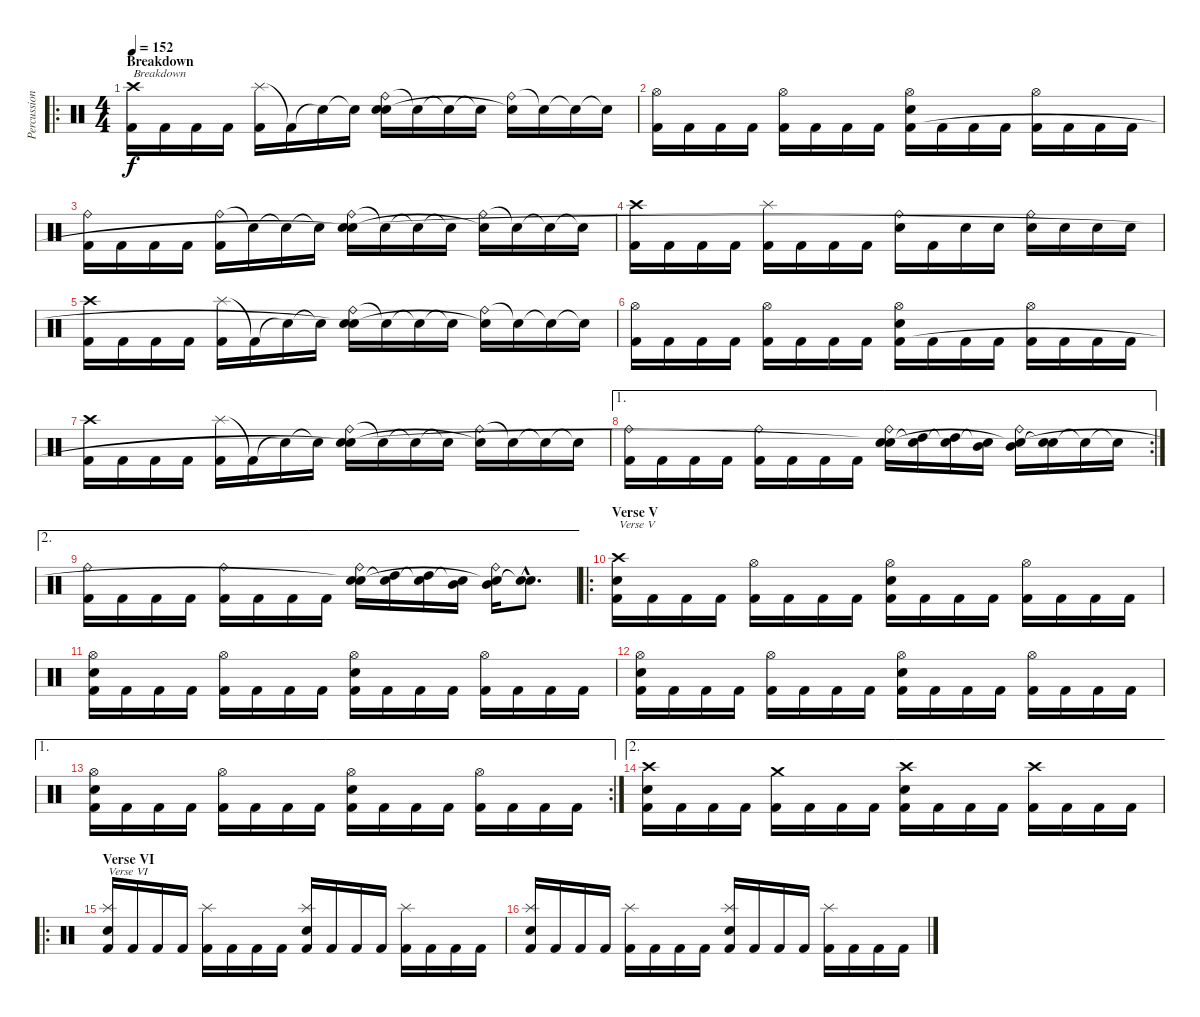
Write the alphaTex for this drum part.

\track ("Percussion" "Percussion") {instrument percussion}
\staff {score}
\articulation defaults
\ro
\ts (4 4)
\section ("" "Breakdown")
\tempo 152
\clef neutral
\ks c
("Crash high (hit)" "Kick (hit) 2").16{txt "Breakdown" dy f} "Kick (hit) 2".16 "Kick (hit) 2".16 "Kick (hit) 2".16 ("Splash (hit)" "Kick (hit) 2").16 "Kick (hit) 2"{t}.16 "Snare (hit)"{t}.16 "Snare (hit)"{t}.16 ("Ride (bell)" "Electric Snare (hit)" "Snare (hit)"{t}).16 "Snare (hit)"{t}.16 "Snare (hit)"{t}.16 "Snare (hit)"{t}.16 ("Ride (bell)" "Snare (hit)"{t}).16 "Snare (hit)"{t}.16 "Snare (hit)"{t}.16 "Snare (hit)"{t}.16 |
("Hi-Hat (open)" "Kick (hit) 2").16 "Kick (hit) 2".16 "Kick (hit) 2".16 "Kick (hit) 2".16 ("Hi-Hat (open)" "Kick (hit) 2").16 "Kick (hit) 2".16 "Kick (hit) 2".16 "Kick (hit) 2".16 ("Hi-Hat (open)" "Electric Snare (hit)" "Kick (hit) 2").16 "Kick (hit) 2".16 "Kick (hit) 2".16 "Kick (hit) 2".16 ("Hi-Hat (open)" "Kick (hit) 2").16 "Kick (hit) 2".16 "Kick (hit) 2".16 "Kick (hit) 2".16 |
("Ride (bell)" "Kick (hit) 2").16 "Kick (hit) 2".16 "Kick (hit) 2".16 "Kick (hit) 2".16 ("Ride (bell)" "Kick (hit) 2").16 "Snare (hit)"{t}.16 "Snare (hit)"{t}.16 "Snare (hit)"{t}.16 ("Ride (bell)" "Electric Snare (hit)" "Snare (hit)"{t}).16 "Snare (hit)"{t}.16 "Snare (hit)"{t}.16 "Snare (hit)"{t}.16 ("Ride (bell)" "Snare (hit)"{t}).16 "Snare (hit)"{t}.16 "Snare (hit)"{t}.16 "Snare (hit)"{t}.16 |
("Crash high (hit)" "Kick (hit) 2").16 "Kick (hit) 2".16 "Kick (hit) 2".16 "Kick (hit) 2".16 ("Splash (hit)" "Kick (hit) 2").16 "Kick (hit) 2".16 "Kick (hit) 2".16 "Kick (hit) 2".16 ("Ride (bell)" "Electric Snare (hit)").16 "Kick (hit) 2".16 "Electric Snare (hit)".16 "Electric Snare (hit)".16 ("Ride (bell)" "Electric Snare (hit)").16 "Electric Snare (hit)".16 "Electric Snare (hit)".16 "Electric Snare (hit)".16 |
("Crash high (hit)" "Kick (hit) 2").16 "Kick (hit) 2".16 "Kick (hit) 2".16 "Kick (hit) 2".16 ("Splash (hit)" "Kick (hit) 2").16 "Kick (hit) 2"{t}.16 "Snare (hit)"{t}.16 "Snare (hit)"{t}.16 ("Ride (bell)" "Electric Snare (hit)" "Snare (hit)"{t}).16 "Snare (hit)"{t}.16 "Snare (hit)"{t}.16 "Snare (hit)"{t}.16 ("Ride (bell)" "Snare (hit)"{t}).16 "Snare (hit)"{t}.16 "Snare (hit)"{t}.16 "Snare (hit)"{t}.16 |
("Hi-Hat (open)" "Kick (hit) 2").16 "Kick (hit) 2".16 "Kick (hit) 2".16 "Kick (hit) 2".16 ("Hi-Hat (open)" "Kick (hit) 2").16 "Kick (hit) 2".16 "Kick (hit) 2".16 "Kick (hit) 2".16 ("Hi-Hat (open)" "Electric Snare (hit)" "Kick (hit) 2").16 "Kick (hit) 2".16 "Kick (hit) 2".16 "Kick (hit) 2".16 ("Hi-Hat (open)" "Kick (hit) 2").16 "Kick (hit) 2".16 "Kick (hit) 2".16 "Kick (hit) 2".16 |
("Crash high (hit)" "Kick (hit) 2").16 "Kick (hit) 2".16 "Kick (hit) 2".16 "Kick (hit) 2".16 ("Splash (hit)" "Kick (hit) 2").16 "Kick (hit) 2"{t}.16 "Snare (hit)"{t}.16 "Snare (hit)"{t}.16 ("Ride (bell)" "Electric Snare (hit)" "Snare (hit)"{t}).16 "Snare (hit)"{t}.16 "Snare (hit)"{t}.16 "Snare (hit)"{t}.16 ("Ride (bell)" "Snare (hit)"{t}).16 "Snare (hit)"{t}.16 "Snare (hit)"{t}.16 "Snare (hit)"{t}.16 |
\ae 1
\rc 2
("Ride (bell)" "Kick (hit) 2").16 "Kick (hit) 2".16 "Kick (hit) 2".16 "Kick (hit) 2".16 ("Ride (bell)" "Kick (hit) 2").16 "Kick (hit) 2".16 "Kick (hit) 2".16 "Kick (hit) 2".16 ("Ride (bell)" "Electric Snare (hit)" "Snare (hit)"{t}).16 ("High Tom (hit)" "Snare (hit)"{t}).16 ("High Tom (hit)" "Snare (hit)"{t}).16 ("Mid Tom (hit)" "Snare (hit)"{t}).16 ("Ride (bell)" "Mid Tom (hit)" "Snare (hit)"{t}).16 ("Electric Snare (hit)" "Snare (hit)"{t}).16 "Snare (hit)"{t}.16 "Snare (hit)"{t}.16 |
\ae 2
("Ride (bell)" "Kick (hit) 2").16 "Kick (hit) 2".16 "Kick (hit) 2".16 "Kick (hit) 2".16 ("Ride (bell)" "Kick (hit) 2").16 "Kick (hit) 2".16 "Kick (hit) 2".16 "Kick (hit) 2".16 ("Ride (bell)" "Electric Snare (hit)" "Snare (hit)"{t}).16 ("High Tom (hit)" "Snare (hit)"{t}).16 ("High Tom (hit)" "Snare (hit)"{t}).16 ("Mid Tom (hit)" "Snare (hit)"{t}).16 ("Ride (bell)" "Mid Tom (hit)" "Snare (hit)"{t}).16 ("Electric Snare (hit)"{hac} "Snare (hit)"{hac t}).8{d} |
\ro
\section ("" "Verse V")
("Crash high (hit)" "Electric Snare (hit)" "Kick (hit) 2").16{txt "Verse V"} "Kick (hit) 2".16 "Kick (hit) 2".16 "Kick (hit) 2".16 ("Hi-Hat (open)" "Kick (hit) 2").16 "Kick (hit) 2".16 "Kick (hit) 2".16 "Kick (hit) 2".16 ("Hi-Hat (open)" "Electric Snare (hit)" "Kick (hit) 2").16 "Kick (hit) 2".16 "Kick (hit) 2".16 "Kick (hit) 2".16 ("Hi-Hat (open)" "Kick (hit) 2").16 "Kick (hit) 2".16 "Kick (hit) 2".16 "Kick (hit) 2".16 |
("Hi-Hat (open)" "Electric Snare (hit)" "Kick (hit) 2").16 "Kick (hit) 2".16 "Kick (hit) 2".16 "Kick (hit) 2".16 ("Hi-Hat (open)" "Kick (hit) 2").16 "Kick (hit) 2".16 "Kick (hit) 2".16 "Kick (hit) 2".16 ("Hi-Hat (open)" "Electric Snare (hit)" "Kick (hit) 2").16 "Kick (hit) 2".16 "Kick (hit) 2".16 "Kick (hit) 2".16 ("Hi-Hat (open)" "Kick (hit) 2").16 "Kick (hit) 2".16 "Kick (hit) 2".16 "Kick (hit) 2".16 |
("Hi-Hat (open)" "Electric Snare (hit)" "Kick (hit) 2").16 "Kick (hit) 2".16 "Kick (hit) 2".16 "Kick (hit) 2".16 ("Hi-Hat (open)" "Kick (hit) 2").16 "Kick (hit) 2".16 "Kick (hit) 2".16 "Kick (hit) 2".16 ("Hi-Hat (open)" "Electric Snare (hit)" "Kick (hit) 2").16 "Kick (hit) 2".16 "Kick (hit) 2".16 "Kick (hit) 2".16 ("Hi-Hat (open)" "Kick (hit) 2").16 "Kick (hit) 2".16 "Kick (hit) 2".16 "Kick (hit) 2".16 |
\ae 1
\rc 2
("Hi-Hat (open)" "Electric Snare (hit)" "Kick (hit) 2").16 "Kick (hit) 2".16 "Kick (hit) 2".16 "Kick (hit) 2".16 ("Hi-Hat (open)" "Kick (hit) 2").16 "Kick (hit) 2".16 "Kick (hit) 2".16 "Kick (hit) 2".16 ("Hi-Hat (open)" "Electric Snare (hit)" "Kick (hit) 2").16 "Kick (hit) 2".16 "Kick (hit) 2".16 "Kick (hit) 2".16 ("Hi-Hat (open)" "Kick (hit) 2").16 "Kick (hit) 2".16 "Kick (hit) 2".16 "Kick (hit) 2".16 |
\ae 2
("Crash high (hit)" "Electric Snare (hit)" "Kick (hit) 2").16 "Kick (hit) 2".16 "Kick (hit) 2".16 "Kick (hit) 2".16 ("Crash medium (hit)" "Kick (hit) 2").16 "Kick (hit) 2".16 "Kick (hit) 2".16 "Kick (hit) 2".16 ("Crash high (hit)" "Electric Snare (hit)" "Kick (hit) 2").16 "Kick (hit) 2".16 "Kick (hit) 2".16 "Kick (hit) 2".16 ("Crash high (hit)" "Kick (hit) 2").16 "Kick (hit) 2".16 "Kick (hit) 2".16 "Kick (hit) 2".16 |
\ro
\section ("" "Verse VI")
("Splash (hit)" "Electric Snare (hit)" "Kick (hit) 2").16{txt "Verse VI"} "Kick (hit) 2".16 "Kick (hit) 2".16 "Kick (hit) 2".16 ("Splash (hit)" "Kick (hit) 2").16 "Kick (hit) 2".16 "Kick (hit) 2".16 "Kick (hit) 2".16 ("Splash (hit)" "Electric Snare (hit)" "Kick (hit) 2").16 "Kick (hit) 2".16 "Kick (hit) 2".16 "Kick (hit) 2".16 ("Splash (hit)" "Kick (hit) 2").16 "Kick (hit) 2".16 "Kick (hit) 2".16 "Kick (hit) 2".16 |
("Splash (hit)" "Electric Snare (hit)" "Kick (hit) 2").16 "Kick (hit) 2".16 "Kick (hit) 2".16 "Kick (hit) 2".16 ("Splash (hit)" "Kick (hit) 2").16 "Kick (hit) 2".16 "Kick (hit) 2".16 "Kick (hit) 2".16 ("Splash (hit)" "Electric Snare (hit)" "Kick (hit) 2").16 "Kick (hit) 2".16 "Kick (hit) 2".16 "Kick (hit) 2".16 ("Splash (hit)" "Kick (hit) 2").16 "Kick (hit) 2".16 "Kick (hit) 2".16 "Kick (hit) 2".16
